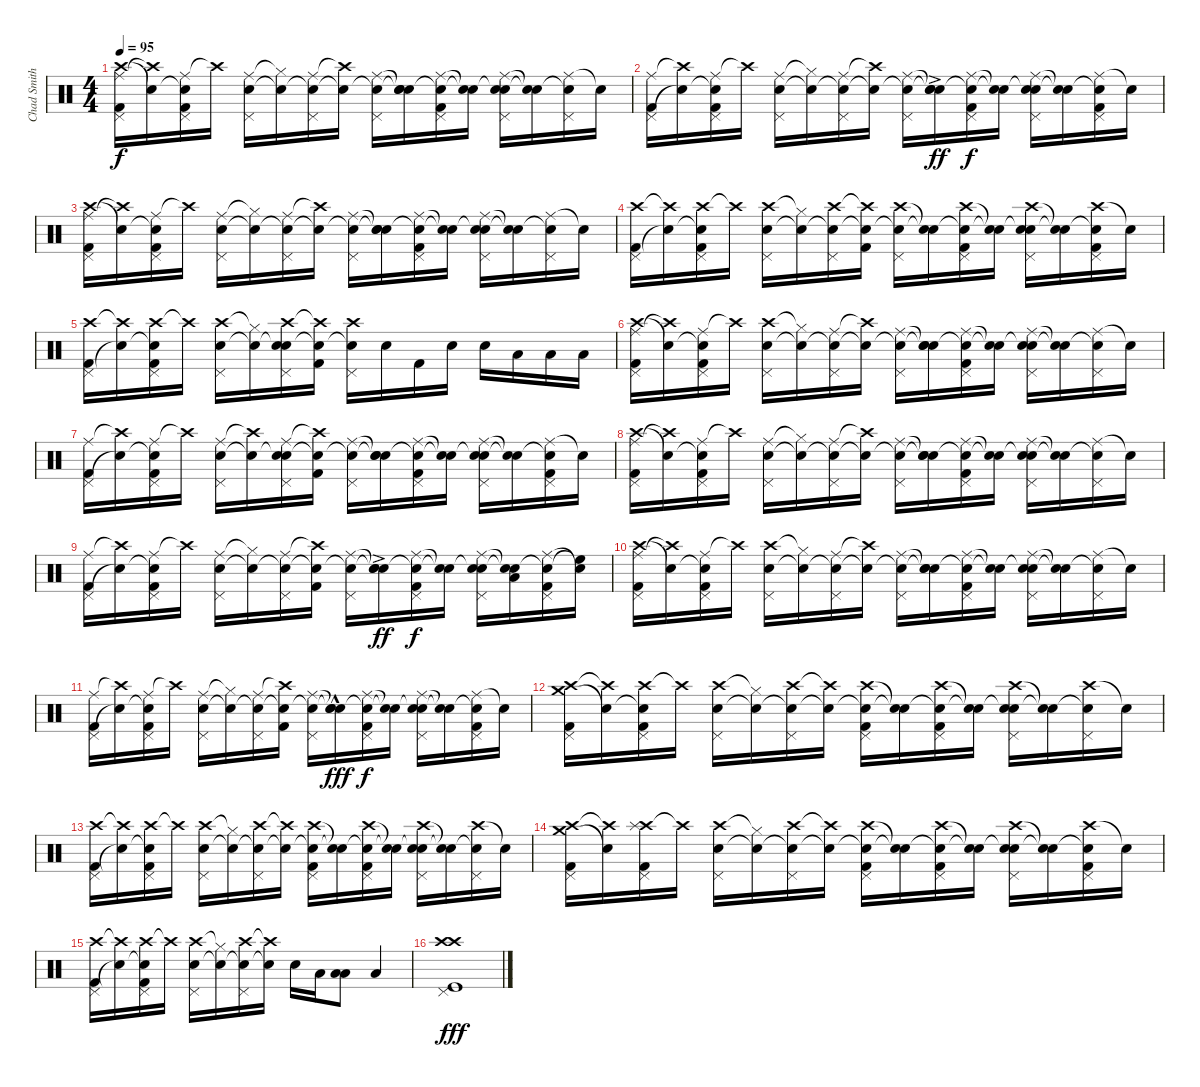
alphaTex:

\track ("Chad Smith" "Chad Smith") {instrument percussion}
\staff {score}
\articulation defaults
\ts (4 4)
\tempo 95
\clef neutral
\ks c
("Ride (middle)" "Crash high (hit)" "Pedal Hi-Hat (hit)" "Kick (hit) 2").16{dy f} ("Crash high (hit)"{t} "Snare (hit)"{t}).16 ("Ride (middle)" "Snare (hit)"{t} "Pedal Hi-Hat (hit)" "Kick (hit) 2").16 "Crash high (hit)"{t}.16 ("Ride (middle)" "Snare (hit) 2" "Pedal Hi-Hat (hit)").16 ("Hi-Hat (closed)"{t} "Snare (hit)"{t}).16 ("Ride (middle)" "Snare (hit)"{t} "Pedal Hi-Hat (hit)").16 ("Crash high (hit)"{t} "Snare (hit)"{t}).16 ("Ride (middle)" "Snare (hit)"{t} "Pedal Hi-Hat (hit)").16 ("Snare (hit)"{t} "Snare (hit)"{t} "Snare (hit) 2").16 ("Ride (middle)" "Snare (hit)"{t} "Pedal Hi-Hat (hit)" "Kick (hit) 2").16 ("Snare (hit)"{t} "Snare (hit)"{t}).16 ("Ride (middle)" "Snare (hit)"{t} "Snare (hit) 2" "Pedal Hi-Hat (hit)").16 ("Snare (hit)"{t} "Snare (hit)"{t}).16 ("Ride (middle)" "Snare (hit)"{t} "Pedal Hi-Hat (hit)").16 "Snare (hit)"{t}.16 |
("Ride (middle)" "Pedal Hi-Hat (hit)" "Kick (hit) 2").16 ("Crash high (hit)"{t} "Snare (hit)"{t}).16 ("Ride (middle)" "Snare (hit)"{t} "Pedal Hi-Hat (hit)" "Kick (hit) 2").16 "Crash high (hit)"{t}.16 ("Ride (middle)" "Snare (hit) 2" "Pedal Hi-Hat (hit)").16 ("Hi-Hat (closed)"{t} "Snare (hit)"{t}).16 ("Ride (middle)" "Snare (hit)"{t} "Pedal Hi-Hat (hit)").16 ("Crash high (hit)"{t} "Snare (hit)"{t}).16 ("Ride (middle)" "Snare (hit)"{t} "Pedal Hi-Hat (hit)").16 ("Snare (hit)"{t} "Snare (hit)"{t} "Snare (hit) 2"{ac}).16{dy ff} ("Ride (middle)" "Snare (hit)"{t} "Pedal Hi-Hat (hit)" "Kick (hit) 2").16{dy f} ("Snare (hit)"{t} "Snare (hit)"{t}).16 ("Ride (middle)" "Snare (hit)"{t} "Snare (hit) 2" "Pedal Hi-Hat (hit)").16 ("Snare (hit)"{t} "Snare (hit)"{t}).16 ("Ride (middle)" "Snare (hit)"{t} "Pedal Hi-Hat (hit)" "Kick (hit) 2").16 "Snare (hit)"{t}.16 |
("Ride (middle)" "Crash high (hit)" "Pedal Hi-Hat (hit)" "Kick (hit) 2").16 ("Crash high (hit)"{t} "Snare (hit)"{t}).16 ("Ride (middle)" "Snare (hit)"{t} "Pedal Hi-Hat (hit)" "Kick (hit) 2").16 "Crash high (hit)"{t}.16 ("Ride (middle)" "Snare (hit) 2" "Pedal Hi-Hat (hit)").16 ("Hi-Hat (closed)"{t} "Snare (hit)"{t}).16 ("Ride (middle)" "Snare (hit)"{t} "Pedal Hi-Hat (hit)").16 ("Crash high (hit)"{t} "Snare (hit)"{t}).16 ("Ride (middle)" "Snare (hit)"{t} "Pedal Hi-Hat (hit)").16 ("Snare (hit)"{t} "Snare (hit)"{t} "Snare (hit) 2").16 ("Ride (middle)" "Snare (hit)"{t} "Pedal Hi-Hat (hit)" "Kick (hit) 2").16 ("Snare (hit)"{t} "Snare (hit)"{t}).16 ("Ride (middle)" "Snare (hit)"{t} "Snare (hit) 2" "Pedal Hi-Hat (hit)").16 ("Snare (hit)"{t} "Snare (hit)"{t}).16 ("Ride (middle)" "Snare (hit)"{t} "Pedal Hi-Hat (hit)").16 "Snare (hit)"{t}.16 |
("Crash high (hit)" "Pedal Hi-Hat (hit)" "Kick (hit) 2").16 ("Crash high (hit)"{t} "Snare (hit)"{t}).16 ("Crash high (hit)" "Snare (hit)"{t} "Pedal Hi-Hat (hit)" "Kick (hit) 2").16 "Crash high (hit)"{t}.16 ("Crash high (hit)" "Snare (hit) 2" "Pedal Hi-Hat (hit)").16 ("Hi-Hat (closed)"{t} "Snare (hit)"{t}).16 ("Crash high (hit)" "Snare (hit)"{t} "Pedal Hi-Hat (hit)").16 ("Crash high (hit)"{t} "Snare (hit)"{t} "Kick (hit) 2").16 ("Crash high (hit)" "Snare (hit)"{t} "Pedal Hi-Hat (hit)").16 ("Snare (hit)"{t} "Snare (hit)"{t}).16 ("Crash high (hit)" "Snare (hit)"{t} "Pedal Hi-Hat (hit)" "Kick (hit) 2").16 ("Snare (hit)"{t} "Snare (hit)"{t}).16 ("Crash high (hit)" "Snare (hit)"{t} "Snare (hit) 2" "Pedal Hi-Hat (hit)").16 ("Snare (hit)"{t} "Snare (hit)"{t}).16 ("Crash high (hit)" "Snare (hit)"{t} "Pedal Hi-Hat (hit)" "Kick (hit) 2").16 "Snare (hit)"{t}.16 |
("Crash high (hit)" "Pedal Hi-Hat (hit)" "Kick (hit) 2").16 ("Crash high (hit)"{t} "Snare (hit)"{t}).16 ("Crash high (hit)" "Snare (hit)"{t} "Pedal Hi-Hat (hit)" "Kick (hit) 2").16 "Crash high (hit)"{t}.16 ("Crash high (hit)" "Snare (hit) 2" "Pedal Hi-Hat (hit)").16 ("Hi-Hat (closed)"{t} "Snare (hit)"{t}).16 ("Crash high (hit)" "Snare (hit)"{t} "Snare (hit) 2" "Pedal Hi-Hat (hit)").16 ("Crash high (hit)"{t} "Snare (hit)"{t} "Kick (hit) 2").16 ("Crash high (hit)" "Snare (hit)"{t} "Pedal Hi-Hat (hit)").16 "Snare (hit) 2".16 "Kick (hit) 2".16 "Snare (hit) 2".16 "Snare (hit) 2".16 "Low Tom (hit)".16 "Low Floor Tom (hit)".16 "Low Floor Tom (hit)".16 |
("Ride (middle)" "Crash high (hit)" "Pedal Hi-Hat (hit)" "Kick (hit) 2").16 ("Crash high (hit)"{t} "Snare (hit)"{t}).16 ("Ride (middle)" "Snare (hit)"{t} "Pedal Hi-Hat (hit)" "Kick (hit) 2").16 "Crash high (hit)"{t}.16 ("Crash high (hit)" "Snare (hit) 2" "Pedal Hi-Hat (hit)").16 ("Hi-Hat (closed)"{t} "Snare (hit)"{t}).16 ("Ride (middle)" "Snare (hit)"{t} "Pedal Hi-Hat (hit)").16 ("Crash high (hit)"{t} "Snare (hit)"{t}).16 ("Ride (middle)" "Snare (hit)"{t} "Pedal Hi-Hat (hit)").16 ("Snare (hit)"{t} "Snare (hit)"{t} "Snare (hit) 2").16 ("Ride (middle)" "Snare (hit)"{t} "Pedal Hi-Hat (hit)" "Kick (hit) 2").16 ("Snare (hit)"{t} "Snare (hit)"{t}).16 ("Ride (middle)" "Snare (hit)"{t} "Snare (hit) 2" "Pedal Hi-Hat (hit)").16 ("Snare (hit)"{t} "Snare (hit)"{t}).16 ("Ride (middle)" "Snare (hit)"{t} "Pedal Hi-Hat (hit)").16 "Snare (hit)"{t}.16 |
("Ride (middle)" "Pedal Hi-Hat (hit)" "Kick (hit) 2").16 ("Crash high (hit)"{t} "Snare (hit)"{t}).16 ("Ride (middle)" "Snare (hit)"{t} "Pedal Hi-Hat (hit)" "Kick (hit) 2").16 "Crash high (hit)"{t}.16 ("Ride (middle)" "Snare (hit) 2" "Pedal Hi-Hat (hit)").16 ("Crash high (hit)"{t} "Snare (hit)"{t}).16 ("Ride (middle)" "Snare (hit)"{t} "Snare (hit) 2" "Pedal Hi-Hat (hit)").16 ("Crash high (hit)"{t} "Snare (hit)"{t} "Kick (hit) 2").16 ("Ride (middle)" "Snare (hit)"{t} "Pedal Hi-Hat (hit)").16 ("Snare (hit)"{t} "Snare (hit)"{t} "Snare (hit) 2").16 ("Ride (middle)" "Snare (hit)"{t} "Pedal Hi-Hat (hit)" "Kick (hit) 2").16 ("Snare (hit)"{t} "Snare (hit)"{t}).16 ("Ride (middle)" "Snare (hit)"{t} "Snare (hit) 2" "Pedal Hi-Hat (hit)").16 ("Snare (hit)"{t} "Snare (hit)"{t}).16 ("Ride (middle)" "Snare (hit)"{t} "Pedal Hi-Hat (hit)" "Kick (hit) 2").16 "Snare (hit)"{t}.16 |
("Ride (middle)" "Crash high (hit)" "Pedal Hi-Hat (hit)" "Kick (hit) 2").16 ("Crash high (hit)"{t} "Snare (hit)"{t}).16 ("Ride (middle)" "Snare (hit)"{t} "Pedal Hi-Hat (hit)" "Kick (hit) 2").16 "Crash high (hit)"{t}.16 ("Ride (middle)" "Snare (hit) 2" "Pedal Hi-Hat (hit)").16 ("Hi-Hat (closed)"{t} "Snare (hit)"{t}).16 ("Ride (middle)" "Snare (hit)"{t} "Pedal Hi-Hat (hit)").16 ("Crash high (hit)"{t} "Snare (hit)"{t}).16 ("Ride (middle)" "Snare (hit)"{t} "Pedal Hi-Hat (hit)").16 ("Snare (hit)"{t} "Snare (hit)"{t} "Snare (hit) 2").16 ("Ride (middle)" "Snare (hit)"{t} "Pedal Hi-Hat (hit)" "Kick (hit) 2").16 ("Snare (hit)"{t} "Snare (hit)"{t}).16 ("Ride (middle)" "Snare (hit)"{t} "Snare (hit) 2" "Pedal Hi-Hat (hit)").16 ("Snare (hit)"{t} "Snare (hit)"{t}).16 ("Ride (middle)" "Snare (hit)"{t} "Pedal Hi-Hat (hit)").16 "Snare (hit)"{t}.16 |
("Ride (middle)" "Pedal Hi-Hat (hit)" "Kick (hit) 2").16 ("Crash high (hit)"{t} "Snare (hit)"{t}).16 ("Ride (middle)" "Snare (hit)"{t} "Pedal Hi-Hat (hit)" "Kick (hit) 2").16 "Crash high (hit)"{t}.16 ("Ride (middle)" "Snare (hit) 2" "Pedal Hi-Hat (hit)").16 ("Hi-Hat (closed)"{t} "Snare (hit)"{t}).16 ("Ride (middle)" "Snare (hit)"{t} "Pedal Hi-Hat (hit)").16 ("Crash high (hit)"{t} "Snare (hit)"{t} "Kick (hit) 2").16 ("Ride (middle)" "Snare (hit)"{t} "Pedal Hi-Hat (hit)").16 ("Snare (hit)"{t} "Snare (hit)"{t} "Snare (hit) 2"{ac}).16{dy ff} ("Ride (middle)" "Snare (hit)"{t} "Pedal Hi-Hat (hit)" "Kick (hit) 2").16{dy f} ("Snare (hit)"{t} "Snare (hit)"{t}).16 ("Ride (middle)" "Snare (hit)"{t} "Snare (hit) 2" "Pedal Hi-Hat (hit)").16 ("Snare (hit)"{t} "Snare (hit)"{t} "Low Floor Tom (hit)").16 ("Ride (middle)" "Snare (hit)"{t} "Pedal Hi-Hat (hit)" "Kick (hit) 2").16 ("Snare (hit)"{t} "High Floor Tom (hit)"{t}).16 |
("Ride (middle)" "Crash high (hit)" "Pedal Hi-Hat (hit)" "Kick (hit) 2").16 ("Crash high (hit)"{t} "Snare (hit)"{t}).16 ("Ride (middle)" "Snare (hit)"{t} "Pedal Hi-Hat (hit)" "Kick (hit) 2").16 "Crash high (hit)"{t}.16 ("Crash high (hit)" "Snare (hit) 2" "Pedal Hi-Hat (hit)").16 ("Hi-Hat (closed)"{t} "Snare (hit)"{t}).16 ("Ride (middle)" "Snare (hit)"{t} "Pedal Hi-Hat (hit)").16 ("Crash high (hit)"{t} "Snare (hit)"{t}).16 ("Ride (middle)" "Snare (hit)"{t} "Pedal Hi-Hat (hit)").16 ("Snare (hit)"{t} "Snare (hit)"{t} "Snare (hit) 2").16 ("Ride (middle)" "Snare (hit)"{t} "Pedal Hi-Hat (hit)" "Kick (hit) 2").16 ("Snare (hit)"{t} "Snare (hit)"{t}).16 ("Ride (middle)" "Snare (hit)"{t} "Snare (hit) 2" "Pedal Hi-Hat (hit)").16 ("Snare (hit)"{t} "Snare (hit)"{t}).16 ("Ride (middle)" "Snare (hit)"{t} "Pedal Hi-Hat (hit)").16 "Snare (hit)"{t}.16 |
("Ride (middle)" "Pedal Hi-Hat (hit)" "Kick (hit) 2").16 ("Crash high (hit)"{t} "Snare (hit)"{t}).16 ("Ride (middle)" "Snare (hit)"{t} "Pedal Hi-Hat (hit)" "Kick (hit) 2").16 "Crash high (hit)"{t}.16 ("Ride (middle)" "Snare (hit) 2" "Pedal Hi-Hat (hit)").16 ("Hi-Hat (closed)"{t} "Snare (hit)"{t}).16 ("Ride (middle)" "Snare (hit)"{t} "Pedal Hi-Hat (hit)").16 ("Crash high (hit)"{t} "Snare (hit)"{t} "Kick (hit) 2").16 ("Ride (middle)" "Snare (hit)"{t} "Pedal Hi-Hat (hit)").16 ("Snare (hit)"{t} "Snare (hit)"{t} "Snare (hit) 2"{hac}).16{dy fff} ("Ride (middle)" "Snare (hit)"{t} "Pedal Hi-Hat (hit)" "Kick (hit) 2").16{dy f} ("Snare (hit)"{t} "Snare (hit)"{t}).16 ("Ride (middle)" "Snare (hit)"{t} "Snare (hit) 2" "Pedal Hi-Hat (hit)").16 ("Snare (hit)"{t} "Snare (hit)"{t}).16 ("Ride (middle)" "Snare (hit)"{t} "Pedal Hi-Hat (hit)" "Kick (hit) 2").16 "Snare (hit)"{t}.16 |
("Crash high (hit)" "Crash medium (hit)" "Pedal Hi-Hat (hit)" "Kick (hit) 2").16 ("Crash high (hit)"{t} "Snare (hit)"{t}).16 ("Crash high (hit)" "Snare (hit)"{t} "Pedal Hi-Hat (hit)" "Kick (hit) 2").16 "Crash high (hit)"{t}.16 ("Crash high (hit)" "Snare (hit) 2" "Pedal Hi-Hat (hit)").16 ("Hi-Hat (closed)"{t} "Snare (hit)"{t}).16 ("Crash high (hit)" "Snare (hit)"{t} "Pedal Hi-Hat (hit)").16 ("Crash high (hit)"{t} "Snare (hit)"{t}).16 ("Crash high (hit)" "Snare (hit)"{t} "Pedal Hi-Hat (hit)" "Kick (hit) 2").16 ("Snare (hit)"{t} "Snare (hit)"{t}).16 ("Crash high (hit)" "Snare (hit)"{t} "Pedal Hi-Hat (hit)" "Kick (hit) 2").16 ("Snare (hit)"{t} "Snare (hit)"{t}).16 ("Crash high (hit)" "Snare (hit)"{t} "Snare (hit) 2" "Pedal Hi-Hat (hit)").16 ("Snare (hit)"{t} "Snare (hit)"{t}).16 ("Crash high (hit)" "Snare (hit)"{t} "Pedal Hi-Hat (hit)").16 "Snare (hit)"{t}.16 |
("Crash high (hit)" "Pedal Hi-Hat (hit)" "Kick (hit) 2").16 ("Crash high (hit)"{t} "Snare (hit)"{t}).16 ("Crash high (hit)" "Snare (hit)"{t} "Pedal Hi-Hat (hit)" "Kick (hit) 2").16 "Crash high (hit)"{t}.16 ("Crash high (hit)" "Snare (hit) 2" "Pedal Hi-Hat (hit)").16 ("Hi-Hat (closed)"{t} "Snare (hit)"{t}).16 ("Crash high (hit)" "Snare (hit)"{t} "Pedal Hi-Hat (hit)").16 ("Crash high (hit)"{t} "Snare (hit)"{t}).16 ("Crash high (hit)" "Snare (hit)"{t} "Pedal Hi-Hat (hit)" "Kick (hit) 2").16 ("Snare (hit)"{t} "Snare (hit)"{t}).16 ("Crash high (hit)" "Snare (hit)"{t} "Pedal Hi-Hat (hit)" "Kick (hit) 2").16 ("Snare (hit)"{t} "Snare (hit)"{t}).16 ("Crash high (hit)" "Snare (hit)"{t} "Snare (hit) 2" "Pedal Hi-Hat (hit)").16 ("Snare (hit)"{t} "Snare (hit)"{t}).16 ("Crash high (hit)" "Snare (hit)"{t} "Pedal Hi-Hat (hit)").16 "Snare (hit)"{t}.16 |
("Crash high (hit)" "Crash medium (hit)" "Pedal Hi-Hat (hit)" "Kick (hit) 2").16 ("Crash high (hit)"{t} "Snare (hit)"{t}).16 ("Crash high (hit)" "Splash (hit)" "Pedal Hi-Hat (hit)" "Kick (hit) 2").16 "Crash high (hit)"{t}.16 ("Crash high (hit)" "Snare (hit) 2" "Pedal Hi-Hat (hit)").16 ("Hi-Hat (closed)"{t} "Snare (hit)"{t}).16 ("Crash high (hit)" "Snare (hit)"{t} "Pedal Hi-Hat (hit)").16 ("Crash high (hit)"{t} "Snare (hit)"{t}).16 ("Crash high (hit)" "Snare (hit)"{t} "Pedal Hi-Hat (hit)" "Kick (hit) 2").16 ("Snare (hit)"{t} "Snare (hit)"{t}).16 ("Crash high (hit)" "Snare (hit)"{t} "Pedal Hi-Hat (hit)" "Kick (hit) 2").16 ("Snare (hit)"{t} "Snare (hit)"{t}).16 ("Crash high (hit)" "Snare (hit)"{t} "Snare (hit) 2" "Pedal Hi-Hat (hit)").16 ("Snare (hit)"{t} "Snare (hit)"{t}).16 ("Crash high (hit)" "Snare (hit)"{t} "Pedal Hi-Hat (hit)" "Kick (hit) 2").16 "Snare (hit)"{t}.16 |
("Crash high (hit)" "Pedal Hi-Hat (hit)" "Kick (hit) 2").16 ("Crash high (hit)"{t} "Snare (hit)"{t}).16 ("Crash high (hit)" "Snare (hit)"{t} "Pedal Hi-Hat (hit)" "Kick (hit) 2").16 "Crash high (hit)"{t}.16 ("Crash high (hit)" "Snare (hit) 2" "Pedal Hi-Hat (hit)").16 ("Hi-Hat (closed)"{t} "Snare (hit)"{t}).16 ("Crash high (hit)" "Snare (hit)"{t} "Pedal Hi-Hat (hit)").16 ("Crash high (hit)"{t} "Snare (hit)"{t}).16 "Snare (hit) 2".16 "Low Tom (hit)".16 ("Low Tom (hit)" "Low Floor Tom (hit)").8 "Low Floor Tom (hit)".4 |
("Crash high (hit)" "Crash high (hit)" "Pedal Hi-Hat (hit)" "Kick (hit)").1{dy fff}
